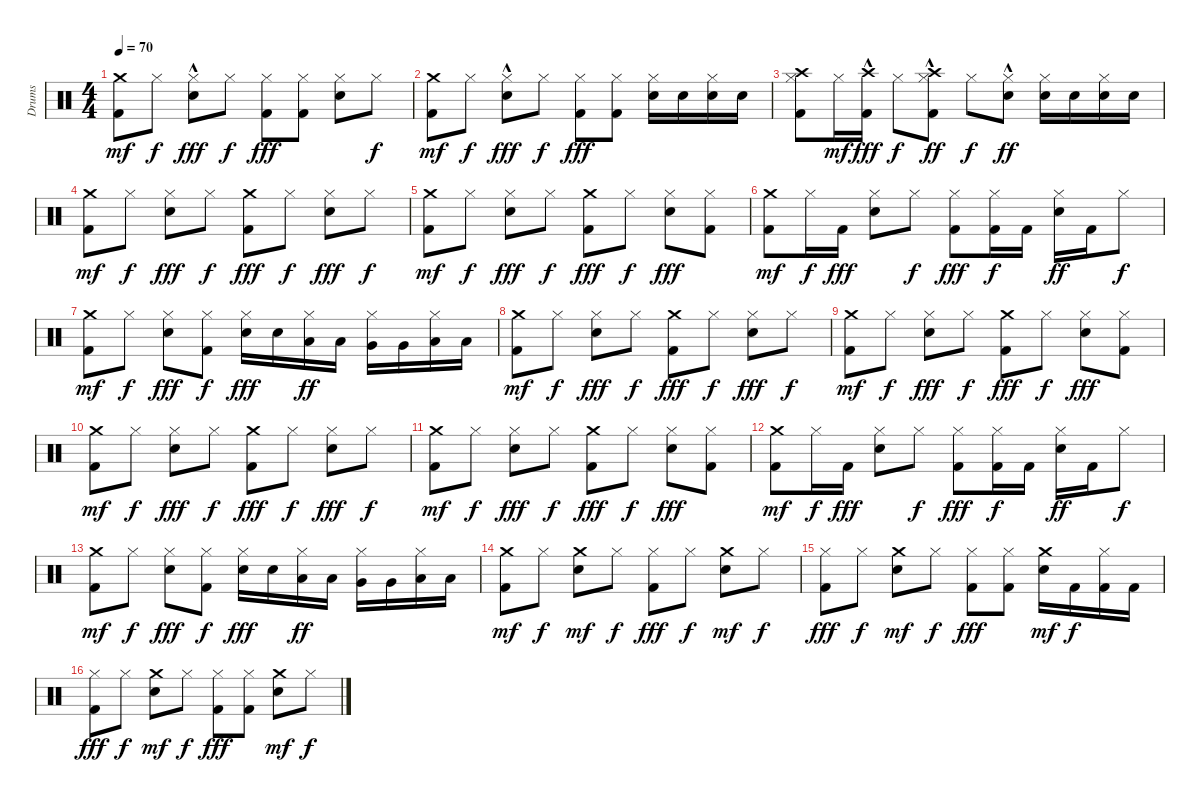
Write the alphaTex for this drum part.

\track ("Drums" "Drums") {instrument percussion}
\staff {score}
\articulation defaults
\ts (4 4)
\tempo 70
\clef neutral
\ks c
("Kick (hit) 2" "Crash medium (hit)").8{dy mf} "Hi-Hat (closed)".8{dy f} ("Hi-Hat (closed)" "Snare (hit) 2"{hac}).8{dy fff} "Hi-Hat (closed)".8{dy f} ("Kick (hit) 2" "Hi-Hat (closed)").8{dy fff} ("Kick (hit) 2" "Hi-Hat (closed)").8 ("Snare (hit) 2" "Hi-Hat (closed)").8 "Hi-Hat (closed)".8{dy f} |
("Kick (hit) 2" "Crash medium (hit)").8{dy mf} "Hi-Hat (closed)".8{dy f} ("Hi-Hat (closed)" "Snare (hit) 2"{hac}).8{dy fff} "Hi-Hat (closed)".8{dy f} ("Kick (hit) 2" "Hi-Hat (closed)").8{dy fff} ("Kick (hit) 2" "Hi-Hat (closed)").8 ("Snare (hit) 2" "Hi-Hat (closed)").16 "Snare (hit) 2".16 ("Snare (hit) 2" "Hi-Hat (closed)").16 "Snare (hit) 2".16 |
("Kick (hit) 2" "Crash high (hit)" "Hi-Hat (closed)").8 "Hi-Hat (closed)".16{dy mf} ("Kick (hit) 2"{hac} "Crash high (hit)"{hac}).16{dy fff} "Hi-Hat (closed)".8{dy f} ("Kick (hit) 2"{hac} "Crash high (hit)"{hac} "Hi-Hat (closed)").8{dy ff} "Hi-Hat (closed)".8{dy f} ("Snare (hit) 2"{hac} "Hi-Hat (closed)").8{dy ff} ("Snare (hit) 2" "Hi-Hat (closed)").16 "Snare (hit) 2".16 ("Snare (hit) 2" "Hi-Hat (closed)").16 "Snare (hit) 2".16 |
("Kick (hit) 2" "Crash medium (hit)").8{dy mf} "Hi-Hat (closed)".8{dy f} ("Snare (hit) 2" "Hi-Hat (closed)").8{dy fff} "Hi-Hat (closed)".8{dy f} ("Crash medium (hit)" "Kick (hit) 2").8{dy fff} "Hi-Hat (closed)".8{dy f} ("Snare (hit) 2" "Hi-Hat (closed)").8{dy fff} "Hi-Hat (closed)".8{dy f} |
("Kick (hit) 2" "Crash medium (hit)").8{dy mf} "Hi-Hat (closed)".8{dy f} ("Snare (hit) 2" "Hi-Hat (closed)").8{dy fff} "Hi-Hat (closed)".8{dy f} ("Crash medium (hit)" "Kick (hit) 2").8{dy fff} "Hi-Hat (closed)".8{dy f} ("Snare (hit) 2" "Hi-Hat (closed)").8{dy fff} ("Kick (hit) 2" "Hi-Hat (closed)").8 |
("Kick (hit) 2" "Crash medium (hit)").8{dy mf} "Hi-Hat (closed)".16{dy f} "Kick (hit) 2".16{dy fff} ("Snare (hit) 2" "Hi-Hat (closed)").8 "Hi-Hat (closed)".8{dy f} ("Kick (hit) 2" "Hi-Hat (closed)").8{dy fff} ("Kick (hit) 2" "Hi-Hat (closed)").16{dy f} "Kick (hit) 2".16 ("Hi-Hat (closed)" "Snare (hit) 2").16{dy ff} "Kick (hit) 2".16 "Hi-Hat (closed)".8{dy f} |
("Kick (hit) 2" "Crash medium (hit)").8{dy mf} "Hi-Hat (closed)".8{dy f} ("Snare (hit) 2" "Hi-Hat (closed)").8{dy fff} ("Kick (hit) 2" "Hi-Hat (closed)").8{dy f} ("Snare (hit) 2" "Hi-Hat (closed)").16{dy fff} "Snare (hit) 2".16 ("Low Tom (hit)" "Hi-Hat (closed)").16{dy ff} "Low Tom (hit)".16 ("Very Low Tom (hit)" "Hi-Hat (closed)").16 "Very Low Tom (hit)".16 ("Low Floor Tom (hit)" "Hi-Hat (closed)").16 "Low Floor Tom (hit)".16 |
("Kick (hit) 2" "Crash medium (hit)").8{dy mf} "Hi-Hat (closed)".8{dy f} ("Snare (hit) 2" "Hi-Hat (closed)").8{dy fff} "Hi-Hat (closed)".8{dy f} ("Crash medium (hit)" "Kick (hit) 2").8{dy fff} "Hi-Hat (closed)".8{dy f} ("Snare (hit) 2" "Hi-Hat (closed)").8{dy fff} "Hi-Hat (closed)".8{dy f} |
("Kick (hit) 2" "Crash medium (hit)").8{dy mf} "Hi-Hat (closed)".8{dy f} ("Snare (hit) 2" "Hi-Hat (closed)").8{dy fff} "Hi-Hat (closed)".8{dy f} ("Crash medium (hit)" "Kick (hit) 2").8{dy fff} "Hi-Hat (closed)".8{dy f} ("Snare (hit) 2" "Hi-Hat (closed)").8{dy fff} ("Kick (hit) 2" "Hi-Hat (closed)").8 |
("Kick (hit) 2" "Crash medium (hit)").8{dy mf} "Hi-Hat (closed)".8{dy f} ("Snare (hit) 2" "Hi-Hat (closed)").8{dy fff} "Hi-Hat (closed)".8{dy f} ("Crash medium (hit)" "Kick (hit) 2").8{dy fff} "Hi-Hat (closed)".8{dy f} ("Snare (hit) 2" "Hi-Hat (closed)").8{dy fff} "Hi-Hat (closed)".8{dy f} |
("Kick (hit) 2" "Crash medium (hit)").8{dy mf} "Hi-Hat (closed)".8{dy f} ("Snare (hit) 2" "Hi-Hat (closed)").8{dy fff} "Hi-Hat (closed)".8{dy f} ("Crash medium (hit)" "Kick (hit) 2").8{dy fff} "Hi-Hat (closed)".8{dy f} ("Snare (hit) 2" "Hi-Hat (closed)").8{dy fff} ("Kick (hit) 2" "Hi-Hat (closed)").8 |
("Kick (hit) 2" "Crash medium (hit)").8{dy mf} "Hi-Hat (closed)".16{dy f} "Kick (hit) 2".16{dy fff} ("Snare (hit) 2" "Hi-Hat (closed)").8 "Hi-Hat (closed)".8{dy f} ("Kick (hit) 2" "Hi-Hat (closed)").8{dy fff} ("Kick (hit) 2" "Hi-Hat (closed)").16{dy f} "Kick (hit) 2".16 ("Hi-Hat (closed)" "Snare (hit) 2").16{dy ff} "Kick (hit) 2".16 "Hi-Hat (closed)".8{dy f} |
("Kick (hit) 2" "Crash medium (hit)").8{dy mf} "Hi-Hat (closed)".8{dy f} ("Snare (hit) 2" "Hi-Hat (closed)").8{dy fff} ("Kick (hit) 2" "Hi-Hat (closed)").8{dy f} ("Snare (hit) 2" "Hi-Hat (closed)").16{dy fff} "Snare (hit) 2".16 ("Low Tom (hit)" "Hi-Hat (closed)").16{dy ff} "Low Tom (hit)".16 ("Very Low Tom (hit)" "Hi-Hat (closed)").16 "Very Low Tom (hit)".16 ("Low Floor Tom (hit)" "Hi-Hat (closed)").16 "Low Floor Tom (hit)".16 |
("Kick (hit) 2" "Crash medium (hit)").8{dy mf} "Hi-Hat (closed)".8{dy f} ("Snare (hit) 2" "Crash medium (hit)").8{dy mf} "Hi-Hat (closed)".8{dy f} ("Kick (hit) 2" "Hi-Hat (closed)").8{dy fff} "Hi-Hat (closed)".8{dy f} ("Snare (hit) 2" "Crash medium (hit)").8{dy mf} "Hi-Hat (closed)".8{dy f} |
("Kick (hit) 2" "Hi-Hat (closed)").8{dy fff} "Hi-Hat (closed)".8{dy f} ("Snare (hit) 2" "Crash medium (hit)").8{dy mf} "Hi-Hat (closed)".8{dy f} ("Kick (hit) 2" "Hi-Hat (closed)").8{dy fff} ("Kick (hit) 2" "Hi-Hat (closed)").8 ("Snare (hit) 2" "Crash medium (hit)").16{dy mf} "Kick (hit) 2".16{dy f} ("Kick (hit) 2" "Hi-Hat (closed)").16 "Kick (hit) 2".16 |
("Hi-Hat (closed)" "Kick (hit) 2").8{dy fff} "Hi-Hat (closed)".8{dy f} ("Snare (hit) 2" "Crash medium (hit)").8{dy mf} "Hi-Hat (closed)".8{dy f} ("Kick (hit) 2" "Hi-Hat (closed)").8{dy fff} ("Kick (hit) 2" "Hi-Hat (closed)").8 ("Snare (hit) 2" "Crash medium (hit)").8{dy mf} "Hi-Hat (closed)".8{dy f}
